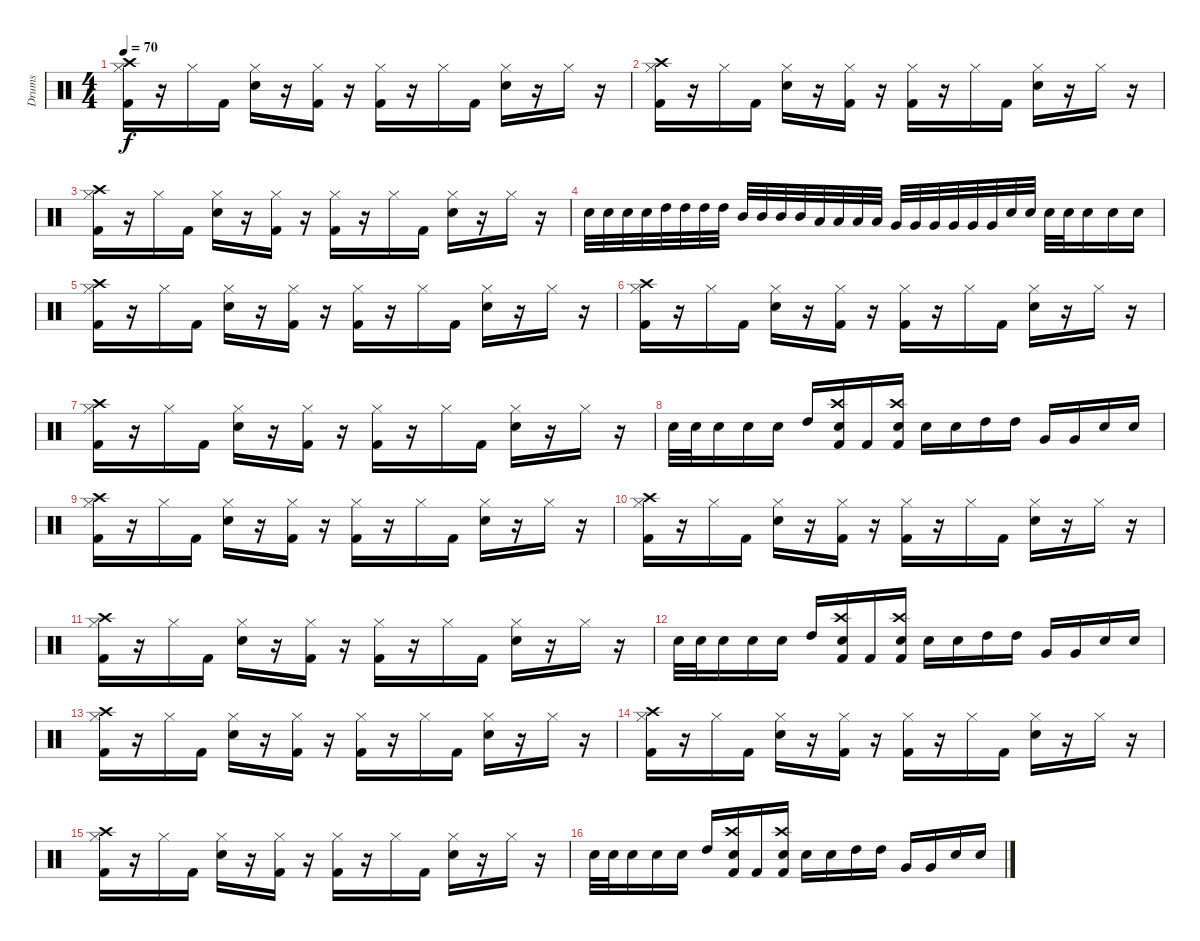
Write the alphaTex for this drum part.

\track ("Drums" "Drums") {instrument percussion}
\staff {score}
\articulation defaults
\ts (4 4)
\tempo 70
\clef neutral
\ks c
("Hi-Hat (closed)" "Kick (hit) 2" "Crash high (hit)").16{dy f} r.16 "Hi-Hat (closed)".16 "Kick (hit) 2".16 ("Hi-Hat (closed)" "Snare (hit) 2").16 r.16 ("Hi-Hat (closed)" "Kick (hit) 2").16 r.16 ("Hi-Hat (closed)" "Kick (hit) 2").16 r.16 "Hi-Hat (closed)".16 "Kick (hit) 2".16 ("Hi-Hat (closed)" "Snare (hit) 2").16 r.16 "Hi-Hat (closed)".16 r.16 |
("Hi-Hat (closed)" "Kick (hit) 2" "Crash high (hit)").16 r.16 "Hi-Hat (closed)".16 "Kick (hit) 2".16 ("Hi-Hat (closed)" "Snare (hit) 2").16 r.16 ("Hi-Hat (closed)" "Kick (hit) 2").16 r.16 ("Hi-Hat (closed)" "Kick (hit) 2").16 r.16 "Hi-Hat (closed)".16 "Kick (hit) 2".16 ("Hi-Hat (closed)" "Snare (hit) 2").16 r.16 "Hi-Hat (closed)".16 r.16 |
("Hi-Hat (closed)" "Kick (hit) 2" "Crash high (hit)").16 r.16 "Hi-Hat (closed)".16 "Kick (hit) 2".16 ("Hi-Hat (closed)" "Snare (hit) 2").16 r.16 ("Hi-Hat (closed)" "Kick (hit) 2").16 r.16 ("Hi-Hat (closed)" "Kick (hit) 2").16 r.16 "Hi-Hat (closed)".16 "Kick (hit) 2".16 ("Hi-Hat (closed)" "Snare (hit) 2").16 r.16 "Hi-Hat (closed)".16 r.16 |
"Snare (hit) 2".32 "Snare (hit) 2".32 "Snare (hit) 2".32 "Snare (hit) 2".32 "High Tom (hit)".32 "High Tom (hit)".32 "High Tom (hit)".32 "High Tom (hit)".32 "Mid Tom (hit)".32 "Mid Tom (hit)".32 "Mid Tom (hit)".32 "Mid Tom (hit)".32 "Low Tom (hit)".32 "Low Tom (hit)".32 "Low Tom (hit)".32 "Low Tom (hit)".32 "Very Low Tom (hit)".32 "Very Low Tom (hit)".32 "Very Low Tom (hit)".32 "Very Low Tom (hit)".32 "Very Low Tom (hit)".32 "Very Low Tom (hit)".32 "Snare (hit) 2".32 "Snare (hit) 2".32 "Snare (hit) 2".32 "Snare (hit) 2".32 "Snare (hit) 2".16 "Snare (hit) 2".16 "Snare (hit) 2".16 |
("Hi-Hat (closed)" "Kick (hit) 2" "Crash high (hit)").16 r.16 "Hi-Hat (closed)".16 "Kick (hit) 2".16 ("Hi-Hat (closed)" "Snare (hit) 2").16 r.16 ("Hi-Hat (closed)" "Kick (hit) 2").16 r.16 ("Hi-Hat (closed)" "Kick (hit) 2").16 r.16 "Hi-Hat (closed)".16 "Kick (hit) 2".16 ("Hi-Hat (closed)" "Snare (hit) 2").16 r.16 "Hi-Hat (closed)".16 r.16 |
("Hi-Hat (closed)" "Kick (hit) 2" "Crash high (hit)").16 r.16 "Hi-Hat (closed)".16 "Kick (hit) 2".16 ("Hi-Hat (closed)" "Snare (hit) 2").16 r.16 ("Hi-Hat (closed)" "Kick (hit) 2").16 r.16 ("Hi-Hat (closed)" "Kick (hit) 2").16 r.16 "Hi-Hat (closed)".16 "Kick (hit) 2".16 ("Hi-Hat (closed)" "Snare (hit) 2").16 r.16 "Hi-Hat (closed)".16 r.16 |
("Hi-Hat (closed)" "Kick (hit) 2" "Crash high (hit)").16 r.16 "Hi-Hat (closed)".16 "Kick (hit) 2".16 ("Hi-Hat (closed)" "Snare (hit) 2").16 r.16 ("Hi-Hat (closed)" "Kick (hit) 2").16 r.16 ("Hi-Hat (closed)" "Kick (hit) 2").16 r.16 "Hi-Hat (closed)".16 "Kick (hit) 2".16 ("Hi-Hat (closed)" "Snare (hit) 2").16 r.16 "Hi-Hat (closed)".16 r.16 |
"Snare (hit) 2".32 "Snare (hit) 2".32 "Snare (hit) 2".16 "Snare (hit) 2".16 "Snare (hit) 2".16 "High Tom (hit)".16 ("Snare (hit) 2" "Crash high (hit)" "Kick (hit) 2").16 "Kick (hit) 2".16 ("Kick (hit) 2" "Crash high (hit)" "Snare (hit) 2").16 "Snare (hit) 2".16 "Snare (hit) 2".16 "High Tom (hit)".16 "High Tom (hit)".16 "Very Low Tom (hit)".16 "Very Low Tom (hit)".16 "Snare (hit) 2".16 "Snare (hit) 2".16 |
("Hi-Hat (closed)" "Kick (hit) 2" "Crash high (hit)").16 r.16 "Hi-Hat (closed)".16 "Kick (hit) 2".16 ("Hi-Hat (closed)" "Snare (hit) 2").16 r.16 ("Hi-Hat (closed)" "Kick (hit) 2").16 r.16 ("Hi-Hat (closed)" "Kick (hit) 2").16 r.16 "Hi-Hat (closed)".16 "Kick (hit) 2".16 ("Hi-Hat (closed)" "Snare (hit) 2").16 r.16 "Hi-Hat (closed)".16 r.16 |
("Hi-Hat (closed)" "Kick (hit) 2" "Crash high (hit)").16 r.16 "Hi-Hat (closed)".16 "Kick (hit) 2".16 ("Hi-Hat (closed)" "Snare (hit) 2").16 r.16 ("Hi-Hat (closed)" "Kick (hit) 2").16 r.16 ("Hi-Hat (closed)" "Kick (hit) 2").16 r.16 "Hi-Hat (closed)".16 "Kick (hit) 2".16 ("Hi-Hat (closed)" "Snare (hit) 2").16 r.16 "Hi-Hat (closed)".16 r.16 |
("Hi-Hat (closed)" "Kick (hit) 2" "Crash high (hit)").16 r.16 "Hi-Hat (closed)".16 "Kick (hit) 2".16 ("Hi-Hat (closed)" "Snare (hit) 2").16 r.16 ("Hi-Hat (closed)" "Kick (hit) 2").16 r.16 ("Hi-Hat (closed)" "Kick (hit) 2").16 r.16 "Hi-Hat (closed)".16 "Kick (hit) 2".16 ("Hi-Hat (closed)" "Snare (hit) 2").16 r.16 "Hi-Hat (closed)".16 r.16 |
"Snare (hit) 2".32 "Snare (hit) 2".32 "Snare (hit) 2".16 "Snare (hit) 2".16 "Snare (hit) 2".16 "High Tom (hit)".16 ("Snare (hit) 2" "Crash high (hit)" "Kick (hit) 2").16 "Kick (hit) 2".16 ("Kick (hit) 2" "Crash high (hit)" "Snare (hit) 2").16 "Snare (hit) 2".16 "Snare (hit) 2".16 "High Tom (hit)".16 "High Tom (hit)".16 "Very Low Tom (hit)".16 "Very Low Tom (hit)".16 "Snare (hit) 2".16 "Snare (hit) 2".16 |
("Hi-Hat (closed)" "Kick (hit) 2" "Crash high (hit)").16 r.16 "Hi-Hat (closed)".16 "Kick (hit) 2".16 ("Hi-Hat (closed)" "Snare (hit) 2").16 r.16 ("Hi-Hat (closed)" "Kick (hit) 2").16 r.16 ("Hi-Hat (closed)" "Kick (hit) 2").16 r.16 "Hi-Hat (closed)".16 "Kick (hit) 2".16 ("Hi-Hat (closed)" "Snare (hit) 2").16 r.16 "Hi-Hat (closed)".16 r.16 |
("Hi-Hat (closed)" "Kick (hit) 2" "Crash high (hit)").16 r.16 "Hi-Hat (closed)".16 "Kick (hit) 2".16 ("Hi-Hat (closed)" "Snare (hit) 2").16 r.16 ("Hi-Hat (closed)" "Kick (hit) 2").16 r.16 ("Hi-Hat (closed)" "Kick (hit) 2").16 r.16 "Hi-Hat (closed)".16 "Kick (hit) 2".16 ("Hi-Hat (closed)" "Snare (hit) 2").16 r.16 "Hi-Hat (closed)".16 r.16 |
("Hi-Hat (closed)" "Kick (hit) 2" "Crash high (hit)").16 r.16 "Hi-Hat (closed)".16 "Kick (hit) 2".16 ("Hi-Hat (closed)" "Snare (hit) 2").16 r.16 ("Hi-Hat (closed)" "Kick (hit) 2").16 r.16 ("Hi-Hat (closed)" "Kick (hit) 2").16 r.16 "Hi-Hat (closed)".16 "Kick (hit) 2".16 ("Hi-Hat (closed)" "Snare (hit) 2").16 r.16 "Hi-Hat (closed)".16 r.16 |
"Snare (hit) 2".32 "Snare (hit) 2".32 "Snare (hit) 2".16 "Snare (hit) 2".16 "Snare (hit) 2".16 "High Tom (hit)".16 ("Snare (hit) 2" "Crash high (hit)" "Kick (hit) 2").16 "Kick (hit) 2".16 ("Kick (hit) 2" "Crash high (hit)" "Snare (hit) 2").16 "Snare (hit) 2".16 "Snare (hit) 2".16 "High Tom (hit)".16 "High Tom (hit)".16 "Very Low Tom (hit)".16 "Very Low Tom (hit)".16 "Snare (hit) 2".16 "Snare (hit) 2".16
